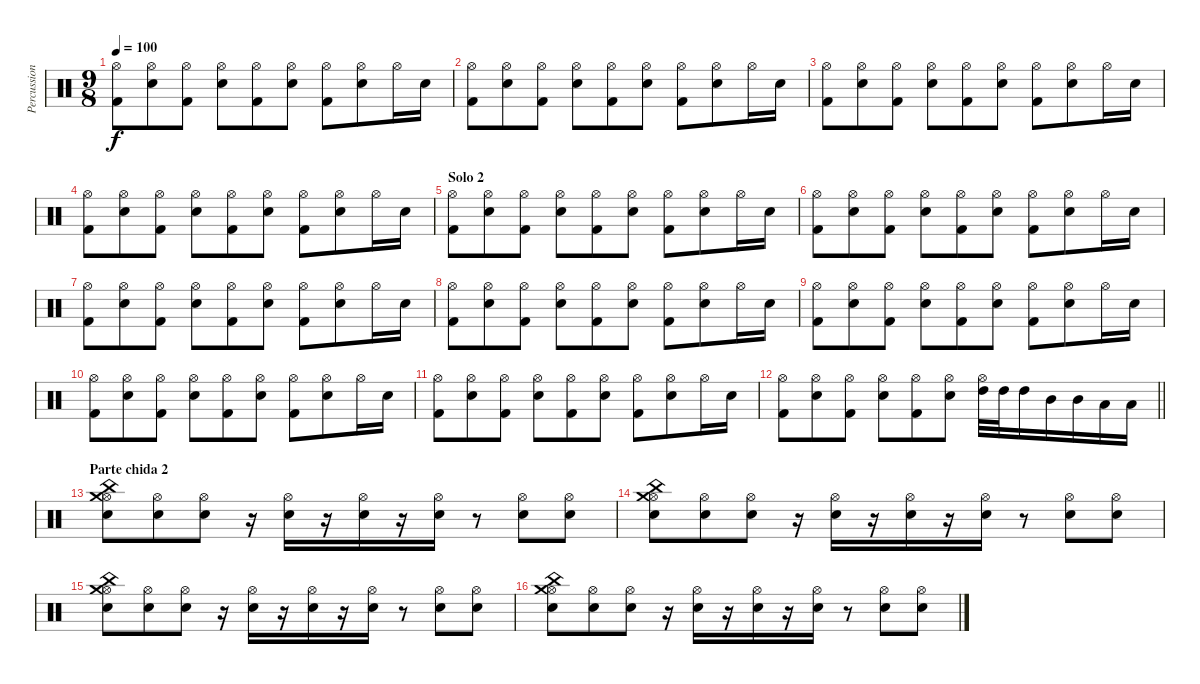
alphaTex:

\track ("Percussion" "Percussion") {instrument percussion}
\staff {score}
\articulation defaults
\ts (9 8)
\tempo 100
\clef neutral
\ks c
("Hi-Hat (open)" "Kick (hit) 2").8{dy f} ("Hi-Hat (open)" "Electric Snare (hit)").8 ("Hi-Hat (open)" "Kick (hit) 2").8 ("Hi-Hat (open)" "Electric Snare (hit)").8 ("Hi-Hat (open)" "Kick (hit) 2").8 ("Hi-Hat (open)" "Electric Snare (hit)").8 ("Hi-Hat (open)" "Kick (hit) 2").8 ("Hi-Hat (open)" "Electric Snare (hit)").8 "Hi-Hat (open)".16 "Electric Snare (hit)".16 |
("Hi-Hat (open)" "Kick (hit) 2").8 ("Hi-Hat (open)" "Electric Snare (hit)").8 ("Hi-Hat (open)" "Kick (hit) 2").8 ("Hi-Hat (open)" "Electric Snare (hit)").8 ("Hi-Hat (open)" "Kick (hit) 2").8 ("Hi-Hat (open)" "Electric Snare (hit)").8 ("Hi-Hat (open)" "Kick (hit) 2").8 ("Hi-Hat (open)" "Electric Snare (hit)").8 "Hi-Hat (open)".16 "Electric Snare (hit)".16 |
("Hi-Hat (open)" "Kick (hit) 2").8 ("Hi-Hat (open)" "Electric Snare (hit)").8 ("Hi-Hat (open)" "Kick (hit) 2").8 ("Hi-Hat (open)" "Electric Snare (hit)").8 ("Hi-Hat (open)" "Kick (hit) 2").8 ("Hi-Hat (open)" "Electric Snare (hit)").8 ("Hi-Hat (open)" "Kick (hit) 2").8 ("Hi-Hat (open)" "Electric Snare (hit)").8 "Hi-Hat (open)".16 "Electric Snare (hit)".16 |
("Hi-Hat (open)" "Kick (hit) 2").8 ("Hi-Hat (open)" "Electric Snare (hit)").8 ("Hi-Hat (open)" "Kick (hit) 2").8 ("Hi-Hat (open)" "Electric Snare (hit)").8 ("Hi-Hat (open)" "Kick (hit) 2").8 ("Hi-Hat (open)" "Electric Snare (hit)").8 ("Hi-Hat (open)" "Kick (hit) 2").8 ("Hi-Hat (open)" "Electric Snare (hit)").8 "Hi-Hat (open)".16 "Electric Snare (hit)".16 |
\section ("" "Solo 2")
("Hi-Hat (open)" "Kick (hit) 2").8 ("Hi-Hat (open)" "Electric Snare (hit)").8 ("Hi-Hat (open)" "Kick (hit) 2").8 ("Hi-Hat (open)" "Electric Snare (hit)").8 ("Hi-Hat (open)" "Kick (hit) 2").8 ("Hi-Hat (open)" "Electric Snare (hit)").8 ("Hi-Hat (open)" "Kick (hit) 2").8 ("Hi-Hat (open)" "Electric Snare (hit)").8 "Hi-Hat (open)".16 "Electric Snare (hit)".16 |
("Hi-Hat (open)" "Kick (hit) 2").8 ("Hi-Hat (open)" "Electric Snare (hit)").8 ("Hi-Hat (open)" "Kick (hit) 2").8 ("Hi-Hat (open)" "Electric Snare (hit)").8 ("Hi-Hat (open)" "Kick (hit) 2").8 ("Hi-Hat (open)" "Electric Snare (hit)").8 ("Hi-Hat (open)" "Kick (hit) 2").8 ("Hi-Hat (open)" "Electric Snare (hit)").8 "Hi-Hat (open)".16 "Electric Snare (hit)".16 |
("Hi-Hat (open)" "Kick (hit) 2").8 ("Hi-Hat (open)" "Electric Snare (hit)").8 ("Hi-Hat (open)" "Kick (hit) 2").8 ("Hi-Hat (open)" "Electric Snare (hit)").8 ("Hi-Hat (open)" "Kick (hit) 2").8 ("Hi-Hat (open)" "Electric Snare (hit)").8 ("Hi-Hat (open)" "Kick (hit) 2").8 ("Hi-Hat (open)" "Electric Snare (hit)").8 "Hi-Hat (open)".16 "Electric Snare (hit)".16 |
("Hi-Hat (open)" "Kick (hit) 2").8 ("Hi-Hat (open)" "Electric Snare (hit)").8 ("Hi-Hat (open)" "Kick (hit) 2").8 ("Hi-Hat (open)" "Electric Snare (hit)").8 ("Hi-Hat (open)" "Kick (hit) 2").8 ("Hi-Hat (open)" "Electric Snare (hit)").8 ("Hi-Hat (open)" "Kick (hit) 2").8 ("Hi-Hat (open)" "Electric Snare (hit)").8 "Hi-Hat (open)".16 "Electric Snare (hit)".16 |
("Hi-Hat (open)" "Kick (hit) 2").8 ("Hi-Hat (open)" "Electric Snare (hit)").8 ("Hi-Hat (open)" "Kick (hit) 2").8 ("Hi-Hat (open)" "Electric Snare (hit)").8 ("Hi-Hat (open)" "Kick (hit) 2").8 ("Hi-Hat (open)" "Electric Snare (hit)").8 ("Hi-Hat (open)" "Kick (hit) 2").8 ("Hi-Hat (open)" "Electric Snare (hit)").8 "Hi-Hat (open)".16 "Electric Snare (hit)".16 |
("Hi-Hat (open)" "Kick (hit) 2").8 ("Hi-Hat (open)" "Electric Snare (hit)").8 ("Hi-Hat (open)" "Kick (hit) 2").8 ("Hi-Hat (open)" "Electric Snare (hit)").8 ("Hi-Hat (open)" "Kick (hit) 2").8 ("Hi-Hat (open)" "Electric Snare (hit)").8 ("Hi-Hat (open)" "Kick (hit) 2").8 ("Hi-Hat (open)" "Electric Snare (hit)").8 "Hi-Hat (open)".16 "Electric Snare (hit)".16 |
("Hi-Hat (open)" "Kick (hit) 2").8 ("Hi-Hat (open)" "Electric Snare (hit)").8 ("Hi-Hat (open)" "Kick (hit) 2").8 ("Hi-Hat (open)" "Electric Snare (hit)").8 ("Hi-Hat (open)" "Kick (hit) 2").8 ("Hi-Hat (open)" "Electric Snare (hit)").8 ("Hi-Hat (open)" "Kick (hit) 2").8 ("Hi-Hat (open)" "Electric Snare (hit)").8 "Hi-Hat (open)".16 "Electric Snare (hit)".16 |
\barLineRight lightlight
("Hi-Hat (open)" "Kick (hit) 2").8 ("Hi-Hat (open)" "Electric Snare (hit)").8 ("Hi-Hat (open)" "Kick (hit) 2").8 ("Hi-Hat (open)" "Electric Snare (hit)").8 ("Hi-Hat (open)" "Kick (hit) 2").8 ("Hi-Hat (open)" "Electric Snare (hit)").8 ("Hi-Hat (open)" "High Tom (hit)").32 "High Tom (hit)".32 "High Tom (hit)".16 "Mid Tom (hit)".16 "Mid Tom (hit)".16 "Low Tom (hit)".16 "Low Tom (hit)".16 |
\section ("" "Parte chida 2")
("Hi-Hat (open)" "Crash medium (hit)" "Electric Snare (hit)" "China (hit)").8 ("Hi-Hat (open)" "Electric Snare (hit)").8 ("Hi-Hat (open)" "Electric Snare (hit)").8 r.16 ("Hi-Hat (open)" "Electric Snare (hit)").16 r.16 ("Hi-Hat (open)" "Electric Snare (hit)").16 r.16 ("Hi-Hat (open)" "Electric Snare (hit)").16 r.8 ("Hi-Hat (open)" "Electric Snare (hit)").8 ("Hi-Hat (open)" "Electric Snare (hit)").8 |
("Hi-Hat (open)" "Crash medium (hit)" "Electric Snare (hit)" "China (hit)").8 ("Hi-Hat (open)" "Electric Snare (hit)").8 ("Hi-Hat (open)" "Electric Snare (hit)").8 r.16 ("Hi-Hat (open)" "Electric Snare (hit)").16 r.16 ("Hi-Hat (open)" "Electric Snare (hit)").16 r.16 ("Hi-Hat (open)" "Electric Snare (hit)").16 r.8 ("Hi-Hat (open)" "Electric Snare (hit)").8 ("Hi-Hat (open)" "Electric Snare (hit)").8 |
("Hi-Hat (open)" "Crash medium (hit)" "Electric Snare (hit)" "China (hit)").8 ("Hi-Hat (open)" "Electric Snare (hit)").8 ("Hi-Hat (open)" "Electric Snare (hit)").8 r.16 ("Hi-Hat (open)" "Electric Snare (hit)").16 r.16 ("Hi-Hat (open)" "Electric Snare (hit)").16 r.16 ("Hi-Hat (open)" "Electric Snare (hit)").16 r.8 ("Hi-Hat (open)" "Electric Snare (hit)").8 ("Hi-Hat (open)" "Electric Snare (hit)").8 |
("Hi-Hat (open)" "Crash medium (hit)" "Electric Snare (hit)" "China (hit)").8 ("Hi-Hat (open)" "Electric Snare (hit)").8 ("Hi-Hat (open)" "Electric Snare (hit)").8 r.16 ("Hi-Hat (open)" "Electric Snare (hit)").16 r.16 ("Hi-Hat (open)" "Electric Snare (hit)").16 r.16 ("Hi-Hat (open)" "Electric Snare (hit)").16 r.8 ("Hi-Hat (open)" "Electric Snare (hit)").8 ("Hi-Hat (open)" "Electric Snare (hit)").8
